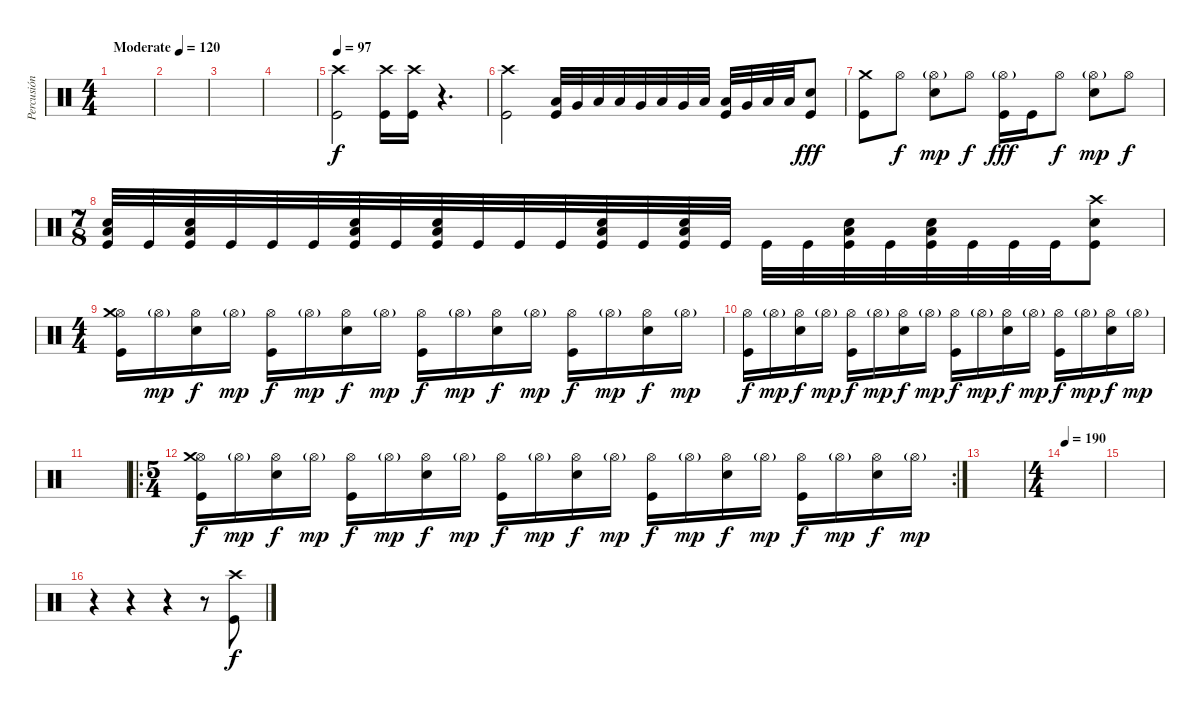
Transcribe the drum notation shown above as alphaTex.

\track ("Percusión" "Percusión") {instrument percussion}
\staff {score}
\articulation defaults
\ts (4 4)
\tempo (120 "Moderate")
\tempo 90
\tempo (120 "Moderate")
\clef neutral
\ks c
|
|
|
|
\tempo 97
("Crash high (hit)" "Kick (hit)").2 ("Crash high (hit)" "Kick (hit)").16 ("Crash high (hit)" "Kick (hit)").16 r.4{d} |
("Crash high (hit)" "Kick (hit)").2 ("Low Tom (hit)" "Kick (hit)").32 "Very Low Tom (hit)".32 "Low Tom (hit)".32 "Low Tom (hit)".32 "Very Low Tom (hit)".32 "Low Tom (hit)".32 "Very Low Tom (hit)".32 "Low Tom (hit)".32 ("Low Tom (hit)" "Kick (hit)").32 "Very Low Tom (hit)".32 "Low Tom (hit)".32 "Low Tom (hit)".32 ("Kick (hit)" "Snare (hit) 2").8{dy fff} |
("Crash medium (hit)" "Kick (hit)").8 "Hi-Hat (open)".8{dy f} ("Hi-Hat (open)"{g} "Snare (hit) 2").8{dy mp} "Hi-Hat (open)".8{dy f} ("Hi-Hat (open)"{g} "Kick (hit)").16{dy fff} "Kick (hit)".16 "Hi-Hat (open)".8{dy f} ("Hi-Hat (open)"{g} "Snare (hit) 2").8{dy mp} "Hi-Hat (open)".8{dy f} |
\ts (7 8)
("Low Tom (hit)" "Kick (hit)" "Snare (hit) 2").32 "Kick (hit)".32 ("Low Tom (hit)" "Kick (hit)" "Snare (hit) 2").32 "Kick (hit)".32 "Kick (hit)".32 "Kick (hit)".32 ("Low Tom (hit)" "Kick (hit)" "Snare (hit) 2").32 "Kick (hit)".32 ("Low Tom (hit)" "Kick (hit)" "Snare (hit) 2").32 "Kick (hit)".32 "Kick (hit)".32 "Kick (hit)".32 ("Low Tom (hit)" "Kick (hit)" "Snare (hit) 2").32 "Kick (hit)".32 ("Low Tom (hit)" "Kick (hit)" "Snare (hit) 2").32 "Kick (hit)".32 "Kick (hit)".32 "Kick (hit)".32 ("Low Tom (hit)" "Kick (hit)" "Snare (hit) 2").32 "Kick (hit)".32 ("Low Tom (hit)" "Kick (hit)" "Snare (hit) 2").32 "Kick (hit)".32 "Kick (hit)".32 "Kick (hit)".32 ("Crash high (hit)" "Kick (hit)" "Snare (hit) 2").8 |
\ts (4 4)
("Hi-Hat (open)" "Crash medium (hit)" "Kick (hit)").16 "Hi-Hat (open)"{g}.16{dy mp} ("Hi-Hat (open)" "Snare (hit) 2").16{dy f} "Hi-Hat (open)"{g}.16{dy mp} ("Hi-Hat (open)" "Kick (hit)").16{dy f} "Hi-Hat (open)"{g}.16{dy mp} ("Hi-Hat (open)" "Snare (hit) 2").16{dy f} "Hi-Hat (open)"{g}.16{dy mp} ("Hi-Hat (open)" "Kick (hit)").16{dy f} "Hi-Hat (open)"{g}.16{dy mp} ("Hi-Hat (open)" "Snare (hit) 2").16{dy f} "Hi-Hat (open)"{g}.16{dy mp} ("Hi-Hat (open)" "Kick (hit)").16{dy f} "Hi-Hat (open)"{g}.16{dy mp} ("Hi-Hat (open)" "Snare (hit) 2").16{dy f} "Hi-Hat (open)"{g}.16{dy mp} |
("Hi-Hat (open)" "Kick (hit)").16{dy f} "Hi-Hat (open)"{g}.16{dy mp} ("Hi-Hat (open)" "Snare (hit) 2").16{dy f} "Hi-Hat (open)"{g}.16{dy mp} ("Hi-Hat (open)" "Kick (hit)").16{dy f} "Hi-Hat (open)"{g}.16{dy mp} ("Hi-Hat (open)" "Snare (hit) 2").16{dy f} "Hi-Hat (open)"{g}.16{dy mp} ("Hi-Hat (open)" "Kick (hit)").16{dy f} "Hi-Hat (open)"{g}.16{dy mp} ("Hi-Hat (open)" "Snare (hit) 2").16{dy f} "Hi-Hat (open)"{g}.16{dy mp} ("Hi-Hat (open)" "Kick (hit)").16{dy f} "Hi-Hat (open)"{g}.16{dy mp} ("Hi-Hat (open)" "Snare (hit) 2").16{dy f} "Hi-Hat (open)"{g}.16{dy mp} |
|
\ro
\rc 2
\ts (5 4)
("Hi-Hat (open)" "Crash medium (hit)" "Kick (hit)").16{dy f} "Hi-Hat (open)"{g}.16{dy mp} ("Hi-Hat (open)" "Snare (hit) 2").16{dy f} "Hi-Hat (open)"{g}.16{dy mp} ("Hi-Hat (open)" "Kick (hit)").16{dy f} "Hi-Hat (open)"{g}.16{dy mp} ("Hi-Hat (open)" "Snare (hit) 2").16{dy f} "Hi-Hat (open)"{g}.16{dy mp} ("Hi-Hat (open)" "Kick (hit)").16{dy f} "Hi-Hat (open)"{g}.16{dy mp} ("Hi-Hat (open)" "Snare (hit) 2").16{dy f} "Hi-Hat (open)"{g}.16{dy mp} ("Hi-Hat (open)" "Kick (hit)").16{dy f} "Hi-Hat (open)"{g}.16{dy mp} ("Hi-Hat (open)" "Snare (hit) 2").16{dy f} "Hi-Hat (open)"{g}.16{dy mp} ("Hi-Hat (open)" "Kick (hit)").16{dy f} "Hi-Hat (open)"{g}.16{dy mp} ("Hi-Hat (open)" "Snare (hit) 2").16{dy f} "Hi-Hat (open)"{g}.16{dy mp} |
|
\ts (4 4)
\tempo 190
|
|
r.4 r.4 r.4 r.8 ("Crash high (hit)" "Kick (hit)").8{dy f}
